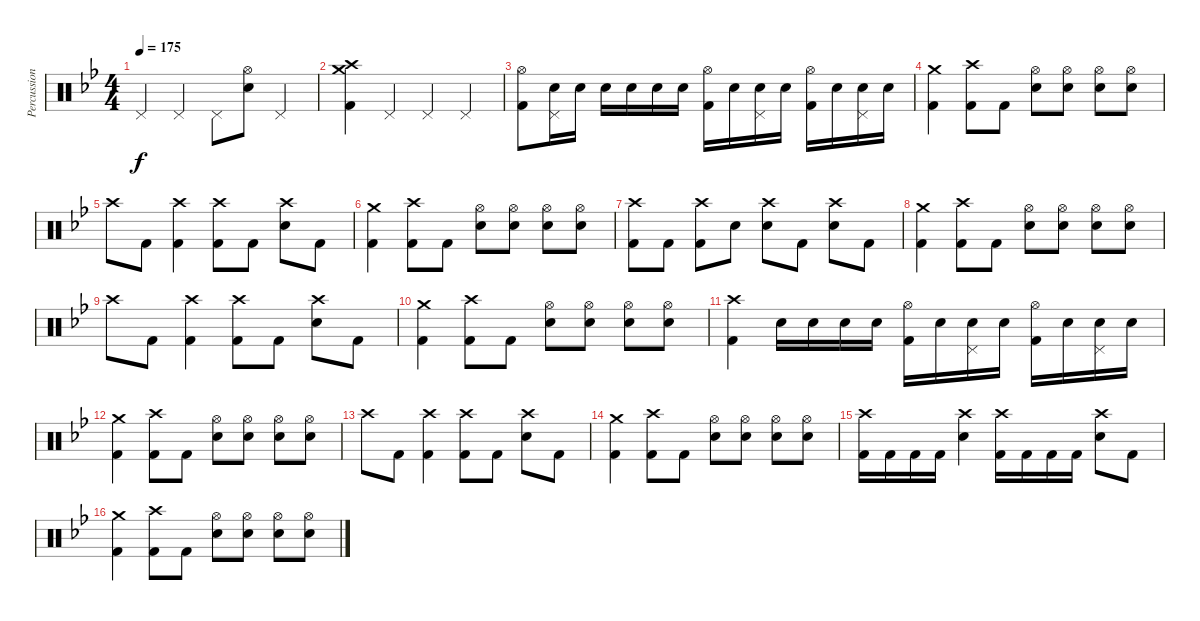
\track ("Percussion" "Percussion") {instrument percussion}
\staff {score}
\articulation defaults
\ts (4 4)
\tempo 175
\clef neutral
\ks bb "Pedal Hi-Hat (hit)".4{dy f} "Pedal Hi-Hat (hit)".4 "Pedal Hi-Hat (hit)".8
("Hi-Hat (open)" "Electric Snare (hit)").8 "Pedal Hi-Hat (hit)".4 |
("Crash medium (hit)" "Crash high (hit)" "Kick (hit) 2").4 "Pedal Hi-Hat (hit)".4 "Pedal Hi-Hat (hit)".4 "Pedal Hi-Hat (hit)".4 |
("Hi-Hat (open)" "Kick (hit) 2").8 ("Pedal Hi-Hat (hit)" "Electric Snare (hit)").16 "Electric Snare (hit)".16 "Electric Snare (hit)".16 "Electric Snare (hit)".16 "Electric Snare (hit)".16 "Electric Snare (hit)".16 ("Hi-Hat (open)" "Kick (hit) 2").16 "Electric Snare (hit)".16 ("Pedal Hi-Hat (hit)" "Electric Snare (hit)").16 "Electric Snare (hit)".16 ("Hi-Hat (open)" "Kick (hit) 2").16 "Electric Snare (hit)".16 ("Pedal Hi-Hat (hit)" "Electric Snare (hit)").16 "Electric Snare (hit)".16 |
("Crash medium (hit)" "Kick (hit) 2").4 ("Crash high (hit)" "Kick (hit) 2").8 "Kick (hit) 2".8 ("Hi-Hat (open)" "Electric Snare (hit)").8 ("Hi-Hat (open)" "Electric Snare (hit)").8 ("Hi-Hat (open)" "Electric Snare (hit)").8 ("Hi-Hat (open)" "Electric Snare (hit)").8 |
"Crash high (hit)".8 "Kick (hit) 2".8 ("Crash high (hit)" "Kick (hit) 2").4 ("Crash high (hit)" "Kick (hit) 2").8 "Kick (hit) 2".8 ("Crash high (hit)" "Electric Snare (hit)").8 "Kick (hit) 2".8 |
("Crash medium (hit)" "Kick (hit) 2").4 ("Crash high (hit)" "Kick (hit) 2").8 "Kick (hit) 2".8 ("Hi-Hat (open)" "Electric Snare (hit)").8 ("Hi-Hat (open)" "Electric Snare (hit)").8 ("Hi-Hat (open)" "Electric Snare (hit)").8 ("Hi-Hat (open)" "Electric Snare (hit)").8 |
("Crash high (hit)" "Kick (hit) 2").8 "Kick (hit) 2".8 ("Crash high (hit)" "Kick (hit) 2").8 "Electric Snare (hit)".8 ("Crash high (hit)" "Electric Snare (hit)").8 "Kick (hit) 2".8 ("Crash high (hit)" "Electric Snare (hit)").8 "Kick (hit) 2".8 |
("Crash medium (hit)" "Kick (hit) 2").4 ("Crash high (hit)" "Kick (hit) 2").8 "Kick (hit) 2".8 ("Hi-Hat (open)" "Electric Snare (hit)").8 ("Hi-Hat (open)" "Electric Snare (hit)").8 ("Hi-Hat (open)" "Electric Snare (hit)").8 ("Hi-Hat (open)" "Electric Snare (hit)").8 |
"Crash high (hit)".8 "Kick (hit) 2".8 ("Crash high (hit)" "Kick (hit) 2").4 ("Crash high (hit)" "Kick (hit) 2").8 "Kick (hit) 2".8 ("Crash high (hit)" "Electric Snare (hit)").8 "Kick (hit) 2".8 |
("Crash medium (hit)" "Kick (hit) 2").4 ("Crash high (hit)" "Kick (hit) 2").8 "Kick (hit) 2".8 ("Hi-Hat (open)" "Electric Snare (hit)").8 ("Hi-Hat (open)" "Electric Snare (hit)").8 ("Hi-Hat (open)" "Electric Snare (hit)").8 ("Hi-Hat (open)" "Electric Snare (hit)").8 |
("Crash high (hit)" "Kick (hit) 2").4 "Electric Snare (hit)".16 "Electric Snare (hit)".16 "Electric Snare (hit)".16 "Electric Snare (hit)".16 ("Hi-Hat (open)" "Kick (hit) 2").16 "Electric Snare (hit)".16 ("Pedal Hi-Hat (hit)" "Electric Snare (hit)").16 "Electric Snare (hit)".16 ("Hi-Hat (open)" "Kick (hit) 2").16 "Electric Snare (hit)".16 ("Pedal Hi-Hat (hit)" "Electric Snare (hit)").16 "Electric Snare (hit)".16 |
("Crash medium (hit)" "Kick (hit) 2").4 ("Crash high (hit)" "Kick (hit) 2").8 "Kick (hit) 2".8 ("Hi-Hat (open)" "Electric Snare (hit)").8 ("Hi-Hat (open)" "Electric Snare (hit)").8 ("Hi-Hat (open)" "Electric Snare (hit)").8 ("Hi-Hat (open)" "Electric Snare (hit)").8 |
"Crash high (hit)".8 "Kick (hit) 2".8 ("Crash high (hit)" "Kick (hit) 2").4 ("Crash high (hit)" "Kick (hit) 2").8 "Kick (hit) 2".8 ("Crash high (hit)" "Electric Snare (hit)").8 "Kick (hit) 2".8 |
("Crash medium (hit)" "Kick (hit) 2").4 ("Crash high (hit)" "Kick (hit) 2").8 "Kick (hit) 2".8 ("Hi-Hat (open)" "Electric Snare (hit)").8 ("Hi-Hat (open)" "Electric Snare (hit)").8 ("Hi-Hat (open)" "Electric Snare (hit)").8 ("Hi-Hat (open)" "Electric Snare (hit)").8 |
("Crash high (hit)" "Kick (hit) 2").16 "Kick (hit) 2".16 "Kick (hit) 2".16 "Kick (hit) 2".16 ("Crash high (hit)" "Electric Snare (hit)").4 ("Crash high (hit)" "Kick (hit) 2").16 "Kick (hit) 2".16 "Kick (hit) 2".16 "Kick (hit) 2".16 ("Crash high (hit)" "Electric Snare (hit)").8 "Kick (hit) 2".8 |
("Crash medium (hit)" "Kick (hit) 2").4 ("Crash high (hit)" "Kick (hit) 2").8 "Kick (hit) 2".8 ("Hi-Hat (open)" "Electric Snare (hit)").8 ("Hi-Hat (open)" "Electric Snare (hit)").8 ("Hi-Hat (open)" "Electric Snare (hit)").8 ("Hi-Hat (open)" "Electric Snare (hit)").8
